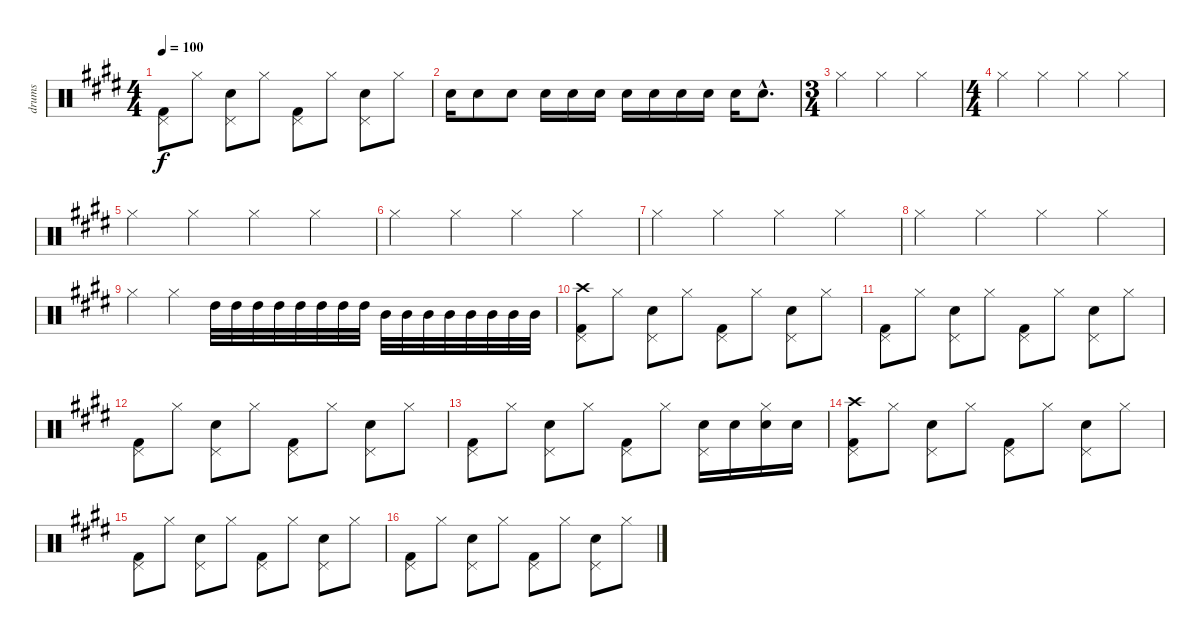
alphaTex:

\track ("drums" "drums") {instrument percussion}
\staff {score}
\articulation defaults
\ts (4 4)
\tempo 100
\clef neutral
\ks e
("Pedal Hi-Hat (hit)" "Kick (hit) 2").8{dy f} "Hi-Hat (closed)".8 ("Snare (hit) 2" "Pedal Hi-Hat (hit)").8 "Hi-Hat (closed)".8 ("Pedal Hi-Hat (hit)" "Kick (hit) 2").8 "Hi-Hat (closed)".8 ("Snare (hit) 2" "Pedal Hi-Hat (hit)").8 "Hi-Hat (closed)".8 |
"Snare (hit) 2".16 "Snare (hit) 2".8 "Snare (hit) 2".8 "Snare (hit) 2".16 "Snare (hit) 2".16 "Snare (hit) 2".16 "Snare (hit) 2".16 "Snare (hit) 2".16 "Snare (hit) 2".16 "Snare (hit) 2".16 "Snare (hit) 2".16 "Snare (hit) 2"{hac}.8{d} |
\ts (3 4)
"Hi-Hat (closed)".4 "Hi-Hat (closed)".4 "Hi-Hat (closed)".4 |
\ts (4 4)
"Hi-Hat (closed)".4 "Hi-Hat (closed)".4 "Hi-Hat (closed)".4 "Hi-Hat (closed)".4 |
"Hi-Hat (closed)".4 "Hi-Hat (closed)".4 "Hi-Hat (closed)".4 "Hi-Hat (closed)".4 |
"Hi-Hat (closed)".4 "Hi-Hat (closed)".4 "Hi-Hat (closed)".4 "Hi-Hat (closed)".4 |
"Hi-Hat (closed)".4 "Hi-Hat (closed)".4 "Hi-Hat (closed)".4 "Hi-Hat (closed)".4 |
"Hi-Hat (closed)".4 "Hi-Hat (closed)".4 "Hi-Hat (closed)".4 "Hi-Hat (closed)".4 |
"Hi-Hat (closed)".4 "Hi-Hat (closed)".4 "High Tom (hit)".32 "High Tom (hit)".32 "High Tom (hit)".32 "High Tom (hit)".32 "High Tom (hit)".32 "High Tom (hit)".32 "High Tom (hit)".32 "High Tom (hit)".32 "Mid Tom (hit)".32 "Mid Tom (hit)".32 "Mid Tom (hit)".32 "Mid Tom (hit)".32 "Mid Tom (hit)".32 "Mid Tom (hit)".32 "Mid Tom (hit)".32 "Mid Tom (hit)".32 |
("Crash high (hit)" "Pedal Hi-Hat (hit)" "Kick (hit) 2").8 "Hi-Hat (closed)".8 ("Snare (hit) 2" "Pedal Hi-Hat (hit)").8 "Hi-Hat (closed)".8 ("Pedal Hi-Hat (hit)" "Kick (hit) 2").8 "Hi-Hat (closed)".8 ("Snare (hit) 2" "Pedal Hi-Hat (hit)").8 "Hi-Hat (closed)".8 |
("Pedal Hi-Hat (hit)" "Kick (hit) 2").8 "Hi-Hat (closed)".8 ("Snare (hit) 2" "Pedal Hi-Hat (hit)").8 "Hi-Hat (closed)".8 ("Pedal Hi-Hat (hit)" "Kick (hit) 2").8 "Hi-Hat (closed)".8 ("Snare (hit) 2" "Pedal Hi-Hat (hit)").8 "Hi-Hat (closed)".8 |
("Pedal Hi-Hat (hit)" "Kick (hit) 2").8 "Hi-Hat (closed)".8 ("Snare (hit) 2" "Pedal Hi-Hat (hit)").8 "Hi-Hat (closed)".8 ("Pedal Hi-Hat (hit)" "Kick (hit) 2").8 "Hi-Hat (closed)".8 ("Snare (hit) 2" "Pedal Hi-Hat (hit)").8 "Hi-Hat (closed)".8 |
("Pedal Hi-Hat (hit)" "Kick (hit) 2").8 "Hi-Hat (closed)".8 ("Snare (hit) 2" "Pedal Hi-Hat (hit)").8 "Hi-Hat (closed)".8 ("Pedal Hi-Hat (hit)" "Kick (hit) 2").8 "Hi-Hat (closed)".8 ("Snare (hit) 2" "Pedal Hi-Hat (hit)").16 "Snare (hit) 2".16 ("Snare (hit) 2" "Hi-Hat (closed)").16 "Snare (hit) 2".16 |
("Crash high (hit)" "Pedal Hi-Hat (hit)" "Kick (hit) 2").8 "Hi-Hat (closed)".8 ("Snare (hit) 2" "Pedal Hi-Hat (hit)").8 "Hi-Hat (closed)".8 ("Pedal Hi-Hat (hit)" "Kick (hit) 2").8 "Hi-Hat (closed)".8 ("Snare (hit) 2" "Pedal Hi-Hat (hit)").8 "Hi-Hat (closed)".8 |
("Pedal Hi-Hat (hit)" "Kick (hit) 2").8 "Hi-Hat (closed)".8 ("Snare (hit) 2" "Pedal Hi-Hat (hit)").8 "Hi-Hat (closed)".8 ("Pedal Hi-Hat (hit)" "Kick (hit) 2").8 "Hi-Hat (closed)".8 ("Snare (hit) 2" "Pedal Hi-Hat (hit)").8 "Hi-Hat (closed)".8 |
("Pedal Hi-Hat (hit)" "Kick (hit) 2").8 "Hi-Hat (closed)".8 ("Snare (hit) 2" "Pedal Hi-Hat (hit)").8 "Hi-Hat (closed)".8 ("Pedal Hi-Hat (hit)" "Kick (hit) 2").8 "Hi-Hat (closed)".8 ("Snare (hit) 2" "Pedal Hi-Hat (hit)").8 "Hi-Hat (closed)".8
